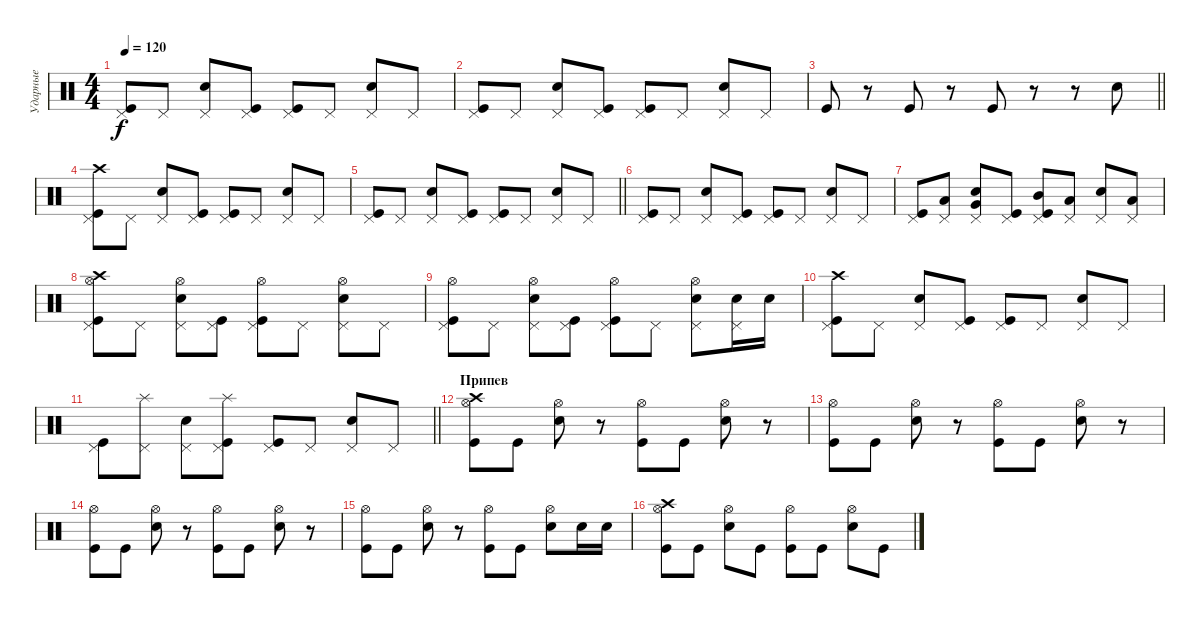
\track ("Ударные" "Ударные") {instrument percussion}
\staff {score}
\articulation defaults
\ts (4 4)
\tempo 120
\clef neutral
\ks c
("Pedal Hi-Hat (hit)" "Kick (hit)").8{dy f} "Pedal Hi-Hat (hit)".8 ("Pedal Hi-Hat (hit)" "Snare (hit) 2").8 ("Pedal Hi-Hat (hit)" "Kick (hit)").8 ("Pedal Hi-Hat (hit)" "Kick (hit)").8 "Pedal Hi-Hat (hit)".8 ("Pedal Hi-Hat (hit)" "Snare (hit) 2").8 "Pedal Hi-Hat (hit)".8 |
("Pedal Hi-Hat (hit)" "Kick (hit)").8 "Pedal Hi-Hat (hit)".8 ("Pedal Hi-Hat (hit)" "Snare (hit) 2").8 ("Pedal Hi-Hat (hit)" "Kick (hit)").8 ("Pedal Hi-Hat (hit)" "Kick (hit)").8 "Pedal Hi-Hat (hit)".8 ("Pedal Hi-Hat (hit)" "Snare (hit) 2").8 "Pedal Hi-Hat (hit)".8 |
\barLineRight lightlight "Kick (hit)".8
r.8 "Kick (hit)".8 r.8 "Kick (hit)".8 r.8 r.8 "Snare (hit) 2".8 |
("Pedal Hi-Hat (hit)" "Kick (hit)" "Crash high (hit)").8 "Pedal Hi-Hat (hit)".8 ("Pedal Hi-Hat (hit)" "Snare (hit) 2").8 ("Pedal Hi-Hat (hit)" "Kick (hit)").8 ("Pedal Hi-Hat (hit)" "Kick (hit)").8 "Pedal Hi-Hat (hit)".8 ("Pedal Hi-Hat (hit)" "Snare (hit) 2").8 "Pedal Hi-Hat (hit)".8 |
\barLineRight lightlight
("Pedal Hi-Hat (hit)" "Kick (hit)").8 "Pedal Hi-Hat (hit)".8 ("Pedal Hi-Hat (hit)" "Snare (hit) 2").8 ("Pedal Hi-Hat (hit)" "Kick (hit)").8 ("Pedal Hi-Hat (hit)" "Kick (hit)").8 "Pedal Hi-Hat (hit)".8 ("Pedal Hi-Hat (hit)" "Snare (hit) 2").8 "Pedal Hi-Hat (hit)".8 |
("Pedal Hi-Hat (hit)" "Kick (hit)").8 "Pedal Hi-Hat (hit)".8 ("Pedal Hi-Hat (hit)" "Snare (hit) 2").8 ("Pedal Hi-Hat (hit)" "Kick (hit)").8 ("Pedal Hi-Hat (hit)" "Kick (hit)").8 "Pedal Hi-Hat (hit)".8 ("Pedal Hi-Hat (hit)" "Snare (hit) 2").8 "Pedal Hi-Hat (hit)".8 |
("Pedal Hi-Hat (hit)" "Kick (hit)").8 ("Pedal Hi-Hat (hit)" "Low Tom (hit)").8 ("Pedal Hi-Hat (hit)" "Snare (hit) 2" "Very Low Tom (hit)").8 ("Pedal Hi-Hat (hit)" "Kick (hit)").8 ("Pedal Hi-Hat (hit)" "Kick (hit)" "Mid Tom (hit)").8 ("Pedal Hi-Hat (hit)" "Low Tom (hit)").8 ("Pedal Hi-Hat (hit)" "Snare (hit) 2").8 ("Pedal Hi-Hat (hit)" "Low Floor Tom (hit)").8 |
("Pedal Hi-Hat (hit)" "Kick (hit)" "Hi-Hat (open)" "Crash high (hit)").8 "Pedal Hi-Hat (hit)".8 ("Pedal Hi-Hat (hit)" "Snare (hit) 2" "Hi-Hat (open)").8 ("Pedal Hi-Hat (hit)" "Kick (hit)").8 ("Pedal Hi-Hat (hit)" "Kick (hit)" "Hi-Hat (open)").8 "Pedal Hi-Hat (hit)".8 ("Pedal Hi-Hat (hit)" "Snare (hit) 2" "Hi-Hat (open)").8 "Pedal Hi-Hat (hit)".8 |
("Pedal Hi-Hat (hit)" "Kick (hit)" "Hi-Hat (open)").8 "Pedal Hi-Hat (hit)".8 ("Pedal Hi-Hat (hit)" "Snare (hit) 2" "Hi-Hat (open)").8 ("Pedal Hi-Hat (hit)" "Kick (hit)").8 ("Pedal Hi-Hat (hit)" "Kick (hit)" "Hi-Hat (open)").8 "Pedal Hi-Hat (hit)".8 ("Pedal Hi-Hat (hit)" "Snare (hit) 2" "Hi-Hat (open)").8 ("Pedal Hi-Hat (hit)" "Snare (hit) 2").16 "Snare (hit) 2".16 |
("Pedal Hi-Hat (hit)" "Kick (hit)" "Crash high (hit)").8 "Pedal Hi-Hat (hit)".8 ("Pedal Hi-Hat (hit)" "Snare (hit) 2").8 ("Pedal Hi-Hat (hit)" "Kick (hit)").8 ("Pedal Hi-Hat (hit)" "Kick (hit)").8 "Pedal Hi-Hat (hit)".8 ("Pedal Hi-Hat (hit)" "Snare (hit) 2").8 "Pedal Hi-Hat (hit)".8 |
\barLineRight lightlight
("Pedal Hi-Hat (hit)" "Kick (hit)").8 ("Pedal Hi-Hat (hit)" "Splash (hit)").8 ("Pedal Hi-Hat (hit)" "Snare (hit) 2").8 ("Pedal Hi-Hat (hit)" "Kick (hit)" "Splash (hit)").8 ("Pedal Hi-Hat (hit)" "Kick (hit)").8 "Pedal Hi-Hat (hit)".8 ("Pedal Hi-Hat (hit)" "Snare (hit) 2").8 "Pedal Hi-Hat (hit)".8 |
\section ("" "Припев")
("Kick (hit)" "Hi-Hat (open)" "Crash high (hit)").8 "Kick (hit)".8 ("Snare (hit) 2" "Hi-Hat (open)").8 r.8 ("Kick (hit)" "Hi-Hat (open)").8 "Kick (hit)".8 ("Snare (hit) 2" "Hi-Hat (open)").8 r.8 |
("Kick (hit)" "Hi-Hat (open)").8 "Kick (hit)".8 ("Snare (hit) 2" "Hi-Hat (open)").8 r.8 ("Kick (hit)" "Hi-Hat (open)").8 "Kick (hit)".8 ("Snare (hit) 2" "Hi-Hat (open)").8 r.8 |
("Kick (hit)" "Hi-Hat (open)").8 "Kick (hit)".8 ("Snare (hit) 2" "Hi-Hat (open)").8 r.8 ("Kick (hit)" "Hi-Hat (open)").8 "Kick (hit)".8 ("Snare (hit) 2" "Hi-Hat (open)").8 r.8 |
("Kick (hit)" "Hi-Hat (open)").8 "Kick (hit)".8 ("Snare (hit) 2" "Hi-Hat (open)").8 r.8 ("Kick (hit)" "Hi-Hat (open)").8 "Kick (hit)".8 ("Snare (hit) 2" "Hi-Hat (open)").8 "Snare (hit) 2".16 "Snare (hit) 2".16 |
("Kick (hit)" "Hi-Hat (open)" "Crash high (hit)").8 "Kick (hit)".8 ("Snare (hit) 2" "Hi-Hat (open)").8 "Kick (hit)".8 ("Kick (hit)" "Hi-Hat (open)").8 "Kick (hit)".8 ("Snare (hit) 2" "Hi-Hat (open)").8 "Kick (hit)".8
